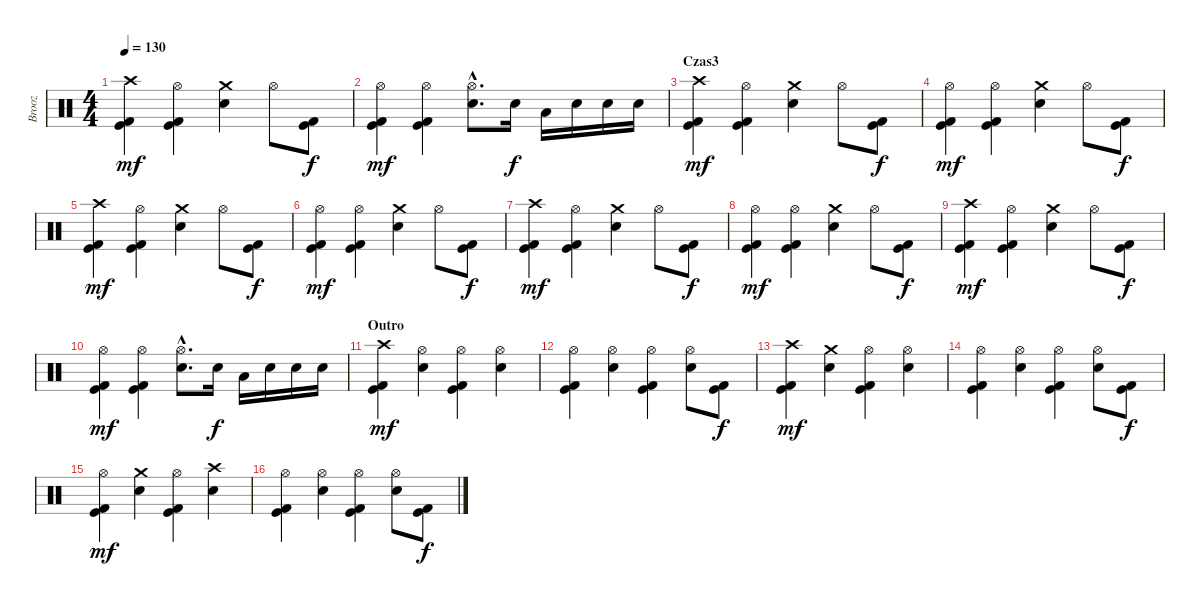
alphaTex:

\track ("Brooz" "Brooz") {instrument percussion}
\staff {score}
\articulation defaults
\ts (4 4)
\tempo 130
\clef neutral
\ks c
("Kick (hit) 2" "Kick (hit)" "Crash high (hit)").4{dy mf} ("Hi-Hat (open)" "Kick (hit) 2" "Kick (hit)").4 ("Crash medium (hit)" "Snare (hit) 2").4 "Hi-Hat (open)".8 ("Kick (hit) 2" "Kick (hit)").8{dy f} |
("Kick (hit) 2" "Kick (hit)" "Hi-Hat (open)").4{dy mf} ("Hi-Hat (open)" "Kick (hit) 2" "Kick (hit)").4 ("Snare (hit) 2"{hac} "Hi-Hat (open)"{hac}).8{d} "Snare (hit) 2".16{dy f} "Low Tom (hit)".16 "Snare (hit) 2".16 "Snare (hit) 2".16 "Snare (hit) 2".16 |
\section ("" "Czas3")
("Kick (hit) 2" "Kick (hit)" "Crash high (hit)").4{dy mf} ("Hi-Hat (open)" "Kick (hit) 2" "Kick (hit)").4 ("Crash medium (hit)" "Snare (hit) 2").4 "Hi-Hat (open)".8 ("Kick (hit) 2" "Kick (hit)").8{dy f} |
("Kick (hit) 2" "Kick (hit)" "Hi-Hat (open)").4{dy mf} ("Hi-Hat (open)" "Kick (hit) 2" "Kick (hit)").4 ("Snare (hit) 2" "Crash medium (hit)").4 "Hi-Hat (open)".8 ("Kick (hit) 2" "Kick (hit)").8{dy f} |
("Kick (hit) 2" "Kick (hit)" "Crash high (hit)").4{dy mf} ("Hi-Hat (open)" "Kick (hit) 2" "Kick (hit)").4 ("Crash medium (hit)" "Snare (hit) 2").4 "Hi-Hat (open)".8 ("Kick (hit) 2" "Kick (hit)").8{dy f} |
("Kick (hit) 2" "Kick (hit)" "Hi-Hat (open)").4{dy mf} ("Hi-Hat (open)" "Kick (hit) 2" "Kick (hit)").4 ("Snare (hit) 2" "Crash medium (hit)").4 "Hi-Hat (open)".8 ("Kick (hit) 2" "Kick (hit)").8{dy f} |
("Kick (hit) 2" "Kick (hit)" "Crash high (hit)").4{dy mf} ("Hi-Hat (open)" "Kick (hit) 2" "Kick (hit)").4 ("Crash medium (hit)" "Snare (hit) 2").4 "Hi-Hat (open)".8 ("Kick (hit) 2" "Kick (hit)").8{dy f} |
("Kick (hit) 2" "Kick (hit)" "Hi-Hat (open)").4{dy mf} ("Hi-Hat (open)" "Kick (hit) 2" "Kick (hit)").4 ("Snare (hit) 2" "Crash medium (hit)").4 "Hi-Hat (open)".8 ("Kick (hit) 2" "Kick (hit)").8{dy f} |
("Kick (hit) 2" "Kick (hit)" "Crash high (hit)").4{dy mf} ("Hi-Hat (open)" "Kick (hit) 2" "Kick (hit)").4 ("Crash medium (hit)" "Snare (hit) 2").4 "Hi-Hat (open)".8 ("Kick (hit) 2" "Kick (hit)").8{dy f} |
("Kick (hit) 2" "Kick (hit)" "Hi-Hat (open)").4{dy mf} ("Hi-Hat (open)" "Kick (hit) 2" "Kick (hit)").4 ("Snare (hit) 2"{hac} "Hi-Hat (open)"{hac}).8{d} "Snare (hit) 2".16{dy f} "Low Tom (hit)".16 "Snare (hit) 2".16 "Snare (hit) 2".16 "Snare (hit) 2".16 |
\section ("" "Outro")
("Kick (hit) 2" "Kick (hit)" "Crash high (hit)").4{dy mf} ("Snare (hit) 2" "Hi-Hat (open)").4 ("Kick (hit) 2" "Kick (hit)" "Hi-Hat (open)").4 ("Snare (hit) 2" "Hi-Hat (open)").4 |
("Kick (hit) 2" "Kick (hit)" "Hi-Hat (open)").4 ("Snare (hit) 2" "Hi-Hat (open)").4 ("Kick (hit) 2" "Kick (hit)" "Hi-Hat (open)").4 ("Snare (hit) 2" "Hi-Hat (open)").8 ("Kick (hit) 2" "Kick (hit)").8{dy f} |
("Kick (hit) 2" "Kick (hit)" "Crash high (hit)").4{dy mf} ("Snare (hit) 2" "Crash medium (hit)").4 ("Kick (hit) 2" "Kick (hit)" "Hi-Hat (open)").4 ("Snare (hit) 2" "Hi-Hat (open)").4 |
("Kick (hit) 2" "Kick (hit)" "Hi-Hat (open)").4 ("Snare (hit) 2" "Hi-Hat (open)").4 ("Kick (hit) 2" "Kick (hit)" "Hi-Hat (open)").4 ("Snare (hit) 2" "Hi-Hat (open)").8 ("Kick (hit) 2" "Kick (hit)").8{dy f} |
("Kick (hit) 2" "Kick (hit)" "Hi-Hat (open)").4{dy mf} ("Snare (hit) 2" "Crash medium (hit)").4 ("Kick (hit) 2" "Kick (hit)" "Hi-Hat (open)").4 ("Snare (hit) 2" "Crash high (hit)").4 |
("Kick (hit) 2" "Kick (hit)" "Hi-Hat (open)").4 ("Snare (hit) 2" "Hi-Hat (open)").4 ("Kick (hit) 2" "Kick (hit)" "Hi-Hat (open)").4 ("Snare (hit) 2" "Hi-Hat (open)").8 ("Kick (hit) 2" "Kick (hit)").8{dy f}
